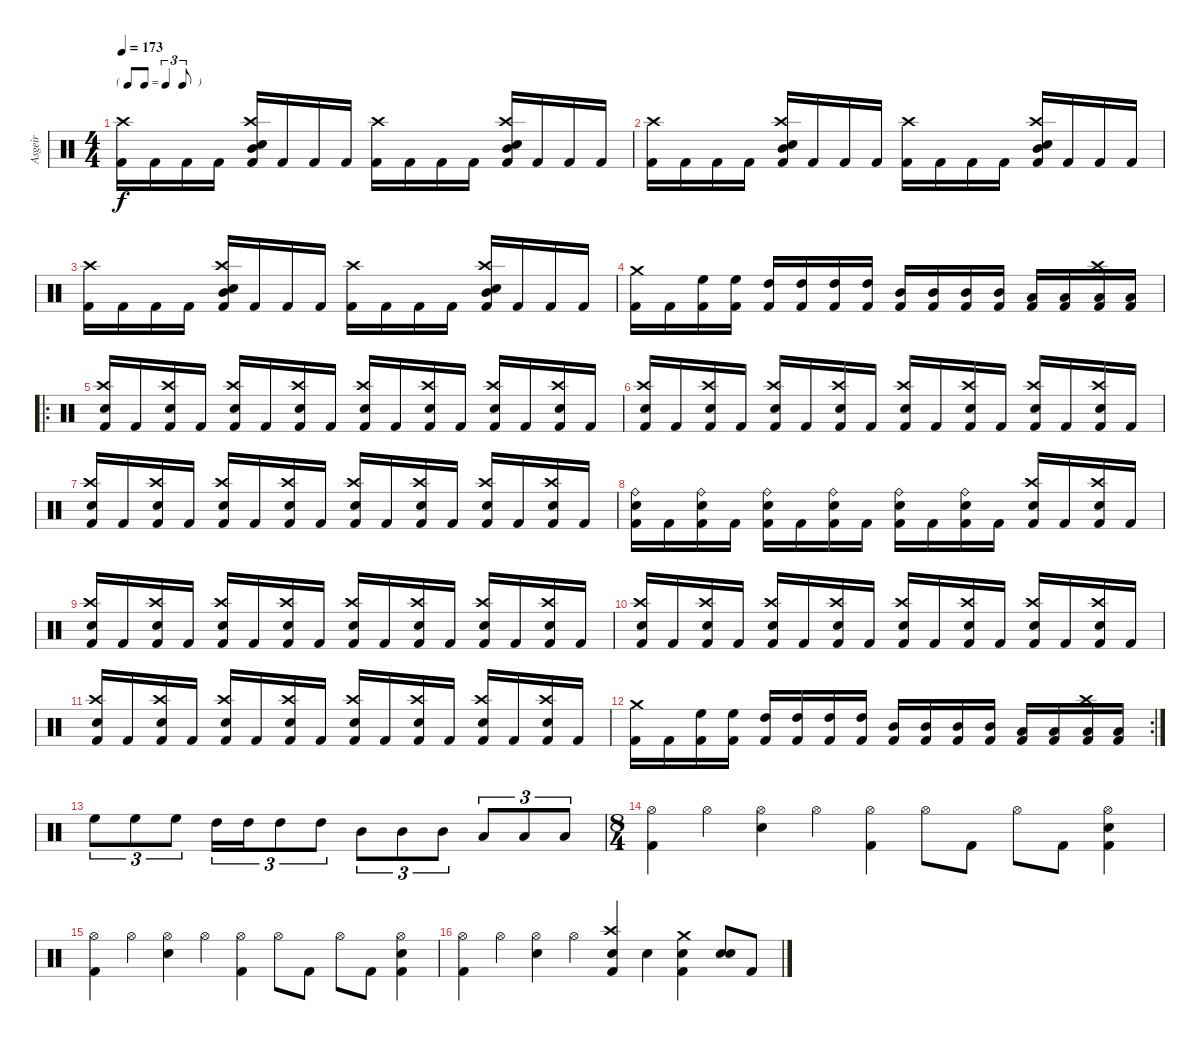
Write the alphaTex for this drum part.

\track ("Asgeir" "Asgeir") {instrument percussion}
\staff {score}
\articulation defaults
\ts (4 4)
\tf triplet8th
\tempo 173
\clef neutral
\ks c
("Kick (hit) 2" "Crash high (hit)").16{dy f} "Kick (hit) 2".16 "Kick (hit) 2".16 "Kick (hit) 2".16 ("Kick (hit) 2" "Mid Tom (hit)" "Snare (hit) 2" "Crash high (hit)").16 "Kick (hit) 2".16 "Kick (hit) 2".16 "Kick (hit) 2".16 ("Kick (hit) 2" "Crash high (hit)").16 "Kick (hit) 2".16 "Kick (hit) 2".16 "Kick (hit) 2".16 ("Kick (hit) 2" "Mid Tom (hit)" "Snare (hit) 2" "Crash high (hit)").16 "Kick (hit) 2".16 "Kick (hit) 2".16 "Kick (hit) 2".16 |
("Kick (hit) 2" "Crash high (hit)").16 "Kick (hit) 2".16 "Kick (hit) 2".16 "Kick (hit) 2".16 ("Kick (hit) 2" "Mid Tom (hit)" "Snare (hit) 2" "Crash high (hit)").16 "Kick (hit) 2".16 "Kick (hit) 2".16 "Kick (hit) 2".16 ("Kick (hit) 2" "Crash high (hit)").16 "Kick (hit) 2".16 "Kick (hit) 2".16 "Kick (hit) 2".16 ("Kick (hit) 2" "Mid Tom (hit)" "Snare (hit) 2" "Crash high (hit)").16 "Kick (hit) 2".16 "Kick (hit) 2".16 "Kick (hit) 2".16 |
("Kick (hit) 2" "Crash high (hit)").16 "Kick (hit) 2".16 "Kick (hit) 2".16 "Kick (hit) 2".16 ("Kick (hit) 2" "Mid Tom (hit)" "Snare (hit) 2" "Crash high (hit)").16 "Kick (hit) 2".16 "Kick (hit) 2".16 "Kick (hit) 2".16 ("Kick (hit) 2" "Crash high (hit)").16 "Kick (hit) 2".16 "Kick (hit) 2".16 "Kick (hit) 2".16 ("Kick (hit) 2" "Mid Tom (hit)" "Snare (hit) 2" "Crash high (hit)").16 "Kick (hit) 2".16 "Kick (hit) 2".16 "Kick (hit) 2".16 |
("Kick (hit) 2" "Crash medium (hit)").16 "Kick (hit) 2".16 ("Kick (hit) 2" "High Floor Tom (hit)").16 ("Kick (hit) 2" "High Floor Tom (hit)").16 ("Kick (hit) 2" "High Tom (hit)").16 ("Kick (hit) 2" "High Tom (hit)").16 ("Kick (hit) 2" "High Tom (hit)").16 ("Kick (hit) 2" "High Tom (hit)").16 ("Kick (hit) 2" "Mid Tom (hit)").16 ("Kick (hit) 2" "Mid Tom (hit)").16 ("Kick (hit) 2" "Mid Tom (hit)").16 ("Kick (hit) 2" "Mid Tom (hit)").16 ("Kick (hit) 2" "Low Tom (hit)").16 ("Kick (hit) 2" "Low Tom (hit)").16 ("Kick (hit) 2" "Low Tom (hit)" "Crash high (hit)").16 ("Kick (hit) 2" "Low Tom (hit)").16 |
\ro
("Kick (hit) 2" "Snare (hit) 2" "Crash high (hit)").16 "Kick (hit) 2".16 ("Kick (hit) 2" "Snare (hit) 2" "Crash high (hit)").16 "Kick (hit) 2".16 ("Kick (hit) 2" "Snare (hit) 2" "Crash high (hit)").16 "Kick (hit) 2".16 ("Kick (hit) 2" "Snare (hit) 2" "Crash high (hit)").16 "Kick (hit) 2".16 ("Kick (hit) 2" "Snare (hit) 2" "Crash high (hit)").16 "Kick (hit) 2".16 ("Kick (hit) 2" "Snare (hit) 2" "Crash high (hit)").16 "Kick (hit) 2".16 ("Kick (hit) 2" "Snare (hit) 2" "Crash high (hit)").16 "Kick (hit) 2".16 ("Kick (hit) 2" "Snare (hit) 2" "Crash high (hit)").16 "Kick (hit) 2".16 |
("Kick (hit) 2" "Snare (hit) 2" "Crash high (hit)").16 "Kick (hit) 2".16 ("Kick (hit) 2" "Snare (hit) 2" "Crash high (hit)").16 "Kick (hit) 2".16 ("Kick (hit) 2" "Snare (hit) 2" "Crash high (hit)").16 "Kick (hit) 2".16 ("Kick (hit) 2" "Snare (hit) 2" "Crash high (hit)").16 "Kick (hit) 2".16 ("Kick (hit) 2" "Snare (hit) 2" "Crash high (hit)").16 "Kick (hit) 2".16 ("Kick (hit) 2" "Snare (hit) 2" "Crash high (hit)").16 "Kick (hit) 2".16 ("Kick (hit) 2" "Snare (hit) 2" "Crash high (hit)").16 "Kick (hit) 2".16 ("Kick (hit) 2" "Snare (hit) 2" "Crash high (hit)").16 "Kick (hit) 2".16 |
("Kick (hit) 2" "Snare (hit) 2" "Crash high (hit)").16 "Kick (hit) 2".16 ("Kick (hit) 2" "Snare (hit) 2" "Crash high (hit)").16 "Kick (hit) 2".16 ("Kick (hit) 2" "Snare (hit) 2" "Crash high (hit)").16 "Kick (hit) 2".16 ("Kick (hit) 2" "Snare (hit) 2" "Crash high (hit)").16 "Kick (hit) 2".16 ("Kick (hit) 2" "Snare (hit) 2" "Crash high (hit)").16 "Kick (hit) 2".16 ("Kick (hit) 2" "Snare (hit) 2" "Crash high (hit)").16 "Kick (hit) 2".16 ("Kick (hit) 2" "Snare (hit) 2" "Crash high (hit)").16 "Kick (hit) 2".16 ("Kick (hit) 2" "Snare (hit) 2" "Crash high (hit)").16 "Kick (hit) 2".16 |
("Kick (hit) 2" "Snare (hit) 2" "Ride (bell)").16 "Kick (hit) 2".16 ("Kick (hit) 2" "Snare (hit) 2" "Ride (bell)").16 "Kick (hit) 2".16 ("Kick (hit) 2" "Snare (hit) 2" "Ride (bell)").16 "Kick (hit) 2".16 ("Kick (hit) 2" "Snare (hit) 2" "Ride (bell)").16 "Kick (hit) 2".16 ("Kick (hit) 2" "Snare (hit) 2" "Ride (bell)").16 "Kick (hit) 2".16 ("Kick (hit) 2" "Snare (hit) 2" "Ride (bell)").16 "Kick (hit) 2".16 ("Kick (hit) 2" "Snare (hit) 2" "Crash high (hit)").16 "Kick (hit) 2".16 ("Kick (hit) 2" "Snare (hit) 2" "Crash high (hit)").16 "Kick (hit) 2".16 |
("Kick (hit) 2" "Snare (hit) 2" "Crash high (hit)").16 "Kick (hit) 2".16 ("Kick (hit) 2" "Snare (hit) 2" "Crash high (hit)").16 "Kick (hit) 2".16 ("Kick (hit) 2" "Snare (hit) 2" "Crash high (hit)").16 "Kick (hit) 2".16 ("Kick (hit) 2" "Snare (hit) 2" "Crash high (hit)").16 "Kick (hit) 2".16 ("Kick (hit) 2" "Snare (hit) 2" "Crash high (hit)").16 "Kick (hit) 2".16 ("Kick (hit) 2" "Snare (hit) 2" "Crash high (hit)").16 "Kick (hit) 2".16 ("Kick (hit) 2" "Snare (hit) 2" "Crash high (hit)").16 "Kick (hit) 2".16 ("Kick (hit) 2" "Snare (hit) 2" "Crash high (hit)").16 "Kick (hit) 2".16 |
("Kick (hit) 2" "Snare (hit) 2" "Crash high (hit)").16 "Kick (hit) 2".16 ("Kick (hit) 2" "Snare (hit) 2" "Crash high (hit)").16 "Kick (hit) 2".16 ("Kick (hit) 2" "Snare (hit) 2" "Crash high (hit)").16 "Kick (hit) 2".16 ("Kick (hit) 2" "Snare (hit) 2" "Crash high (hit)").16 "Kick (hit) 2".16 ("Kick (hit) 2" "Snare (hit) 2" "Crash high (hit)").16 "Kick (hit) 2".16 ("Kick (hit) 2" "Snare (hit) 2" "Crash high (hit)").16 "Kick (hit) 2".16 ("Kick (hit) 2" "Snare (hit) 2" "Crash high (hit)").16 "Kick (hit) 2".16 ("Kick (hit) 2" "Snare (hit) 2" "Crash high (hit)").16 "Kick (hit) 2".16 |
("Kick (hit) 2" "Snare (hit) 2" "Crash high (hit)").16 "Kick (hit) 2".16 ("Kick (hit) 2" "Snare (hit) 2" "Crash high (hit)").16 "Kick (hit) 2".16 ("Kick (hit) 2" "Snare (hit) 2" "Crash high (hit)").16 "Kick (hit) 2".16 ("Kick (hit) 2" "Snare (hit) 2" "Crash high (hit)").16 "Kick (hit) 2".16 ("Kick (hit) 2" "Snare (hit) 2" "Crash high (hit)").16 "Kick (hit) 2".16 ("Kick (hit) 2" "Snare (hit) 2" "Crash high (hit)").16 "Kick (hit) 2".16 ("Kick (hit) 2" "Snare (hit) 2" "Crash high (hit)").16 "Kick (hit) 2".16 ("Kick (hit) 2" "Snare (hit) 2" "Crash high (hit)").16 "Kick (hit) 2".16 |
\rc 2
("Kick (hit) 2" "Crash medium (hit)").16 "Kick (hit) 2".16 ("Kick (hit) 2" "High Floor Tom (hit)").16 ("Kick (hit) 2" "High Floor Tom (hit)").16 ("Kick (hit) 2" "High Tom (hit)").16 ("Kick (hit) 2" "High Tom (hit)").16 ("Kick (hit) 2" "High Tom (hit)").16 ("Kick (hit) 2" "High Tom (hit)").16 ("Kick (hit) 2" "Mid Tom (hit)").16 ("Kick (hit) 2" "Mid Tom (hit)").16 ("Kick (hit) 2" "Mid Tom (hit)").16 ("Kick (hit) 2" "Mid Tom (hit)").16 ("Kick (hit) 2" "Low Tom (hit)").16 ("Kick (hit) 2" "Low Tom (hit)").16 ("Kick (hit) 2" "Low Tom (hit)" "Crash high (hit)").16 ("Kick (hit) 2" "Low Tom (hit)").16 |
"High Floor Tom (hit)".8{tu (3 2)} "High Floor Tom (hit)".8{tu (3 2)} "High Floor Tom (hit)".8{tu (3 2)} "High Tom (hit)".16{tu (3 2)} "High Tom (hit)".16{tu (3 2)} "High Tom (hit)".8{tu (3 2)} "High Tom (hit)".8{tu (3 2)} "Mid Tom (hit)".8{tu (3 2)} "Mid Tom (hit)".8{tu (3 2)} "Mid Tom (hit)".8{tu (3 2)} "Low Tom (hit)".8{tu (3 2)} "Low Tom (hit)".8{tu (3 2)} "Low Tom (hit)".8{tu (3 2)} |
\ts (8 4)
("Kick (hit) 2" "Hi-Hat (open)").4 "Hi-Hat (open)".4 ("Snare (hit) 2" "Hi-Hat (open)").4 "Hi-Hat (open)".4 ("Kick (hit) 2" "Hi-Hat (open)").4 "Hi-Hat (open)".8 "Kick (hit) 2".8 "Hi-Hat (open)".8 "Kick (hit) 2".8 ("Kick (hit) 2" "Snare (hit) 2" "Hi-Hat (open)").4 |
("Kick (hit) 2" "Hi-Hat (open)").4 "Hi-Hat (open)".4 ("Snare (hit) 2" "Hi-Hat (open)").4 "Hi-Hat (open)".4 ("Kick (hit) 2" "Hi-Hat (open)").4 "Hi-Hat (open)".8 "Kick (hit) 2".8 "Hi-Hat (open)".8 "Kick (hit) 2".8 ("Kick (hit) 2" "Snare (hit) 2" "Hi-Hat (open)").4 |
("Kick (hit) 2" "Hi-Hat (open)").4 "Hi-Hat (open)".4 ("Snare (hit) 2" "Hi-Hat (open)").4 "Hi-Hat (open)".4 ("Kick (hit) 2" "Snare (hit) 2" "Crash high (hit)").4 "Snare (hit) 2".4 ("Kick (hit) 2" "Snare (hit) 2" "Crash medium (hit)").4 ("Snare (hit) 2" "Snare (hit) 2").8{bd 480} "Kick (hit) 2".8
